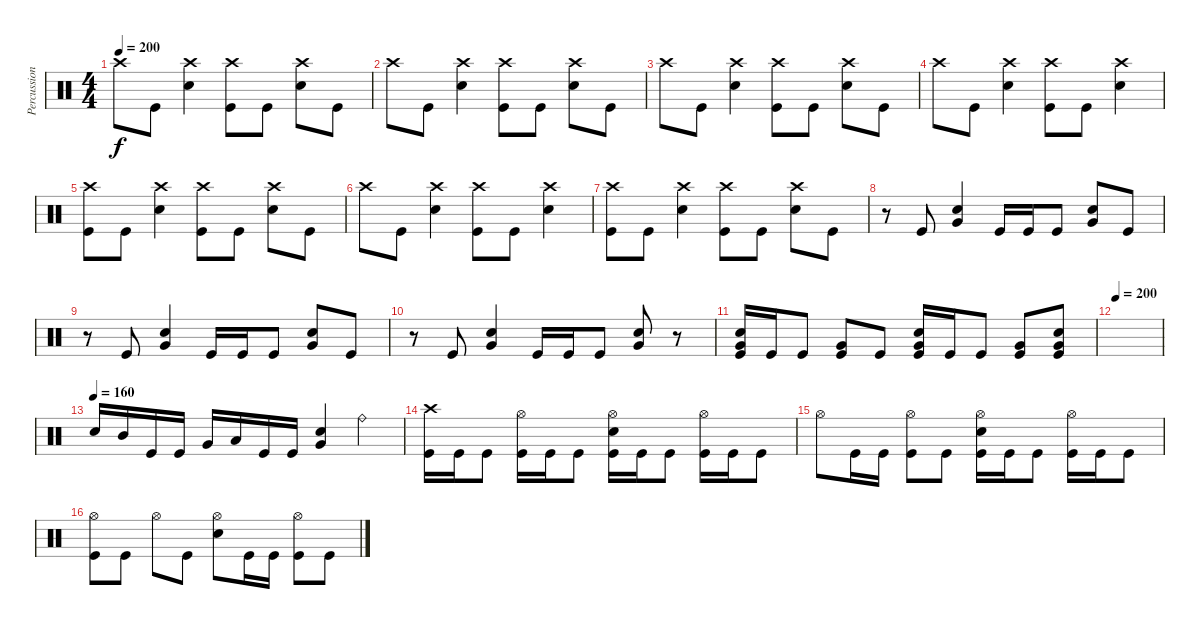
\track ("Percussion" "Percussion") {instrument percussion}
\staff {score}
\articulation defaults
\ts (4 4)
\tempo 200
\clef neutral
\ks c "Crash high (hit)".8{dy f} "Kick (hit)".8
("Crash high (hit)" "Snare (hit) 2").4 ("Crash high (hit)" "Kick (hit)").8 "Kick (hit)".8 ("Crash high (hit)" "Snare (hit) 2").8 "Kick (hit)".8 |
"Crash high (hit)".8 "Kick (hit)".8 ("Crash high (hit)" "Snare (hit) 2").4 ("Crash high (hit)" "Kick (hit)").8 "Kick (hit)".8 ("Crash high (hit)" "Snare (hit) 2").8 "Kick (hit)".8 |
"Crash high (hit)".8 "Kick (hit)".8 ("Crash high (hit)" "Snare (hit) 2").4 ("Crash high (hit)" "Kick (hit)").8 "Kick (hit)".8 ("Crash high (hit)" "Snare (hit) 2").8 "Kick (hit)".8 |
"Crash high (hit)".8 "Kick (hit)".8 ("Crash high (hit)" "Snare (hit) 2").4 ("Crash high (hit)" "Kick (hit)").8 "Kick (hit)".8 ("Crash high (hit)" "Snare (hit) 2").4 |
("Crash high (hit)" "Kick (hit)").8 "Kick (hit)".8 ("Crash high (hit)" "Snare (hit) 2").4 ("Crash high (hit)" "Kick (hit)").8 "Kick (hit)".8 ("Crash high (hit)" "Snare (hit) 2").8 "Kick (hit)".8 |
"Crash high (hit)".8 "Kick (hit)".8 ("Crash high (hit)" "Snare (hit) 2").4 ("Crash high (hit)" "Kick (hit)").8 "Kick (hit)".8 ("Crash high (hit)" "Snare (hit) 2").4 |
("Crash high (hit)" "Kick (hit)").8 "Kick (hit)".8 ("Crash high (hit)" "Snare (hit) 2").4 ("Crash high (hit)" "Kick (hit)").8 "Kick (hit)".8 ("Crash high (hit)" "Snare (hit) 2").8 "Kick (hit)".8 |
r.8 "Kick (hit)".8 ("Snare (hit) 2" "Very Low Tom (hit)").4 "Kick (hit)".16 "Kick (hit)".16 "Kick (hit)".8 ("Snare (hit) 2" "Very Low Tom (hit)").8 "Kick (hit)".8 |
r.8 "Kick (hit)".8 ("Snare (hit) 2" "Very Low Tom (hit)").4 "Kick (hit)".16 "Kick (hit)".16 "Kick (hit)".8 ("Snare (hit) 2" "Very Low Tom (hit)").8 "Kick (hit)".8 |
r.8 "Kick (hit)".8 ("Snare (hit) 2" "Very Low Tom (hit)").4 "Kick (hit)".16 "Kick (hit)".16 "Kick (hit)".8 ("Snare (hit) 2" "Very Low Tom (hit)").8 r.8 |
("Snare (hit) 2" "Very Low Tom (hit)" "Kick (hit)").16 "Kick (hit)".16 "Kick (hit)".8 ("Very Low Tom (hit)" "Kick (hit)").8 "Kick (hit)".8 ("Snare (hit) 2" "Very Low Tom (hit)" "Kick (hit)").16 "Kick (hit)".16 "Kick (hit)".8 ("Very Low Tom (hit)" "Kick (hit)").8 ("Snare (hit) 2" "Very Low Tom (hit)" "Kick (hit)").8 |
\tempo 200
|
\tempo (160)
"Snare (hit) 2".16 "Mid Tom (hit)".16 "Kick (hit)".16 "Kick (hit)".16 "Very Low Tom (hit)".16 "Low Tom (hit)".16 "Kick (hit)".16 "Kick (hit)".16 ("Snare (hit) 2" "Very Low Tom (hit)").4 "Ride (bell)".4 |
("Crash high (hit)" "Kick (hit)").16 "Kick (hit)".16 "Kick (hit)".8 ("Hi-Hat (open)" "Kick (hit)").16 "Kick (hit)".16 "Kick (hit)".8 ("Hi-Hat (open)" "Snare (hit) 2" "Kick (hit)").16 "Kick (hit)".16 "Kick (hit)".8 ("Hi-Hat (open)" "Kick (hit)").16 "Kick (hit)".16 "Kick (hit)".8 |
"Hi-Hat (open)".8 "Kick (hit)".16 "Kick (hit)".16 ("Hi-Hat (open)" "Kick (hit)").8 "Kick (hit)".8 ("Hi-Hat (open)" "Snare (hit) 2" "Kick (hit)").16 "Kick (hit)".16 "Kick (hit)".8 ("Hi-Hat (open)" "Kick (hit)").16 "Kick (hit)".16 "Kick (hit)".8 |
("Hi-Hat (open)" "Kick (hit)").8 "Kick (hit)".8 "Hi-Hat (open)".8 "Kick (hit)".8 ("Hi-Hat (open)" "Snare (hit) 2").8 "Kick (hit)".16 "Kick (hit)".16 ("Hi-Hat (open)" "Kick (hit)").8 "Kick (hit)".8
